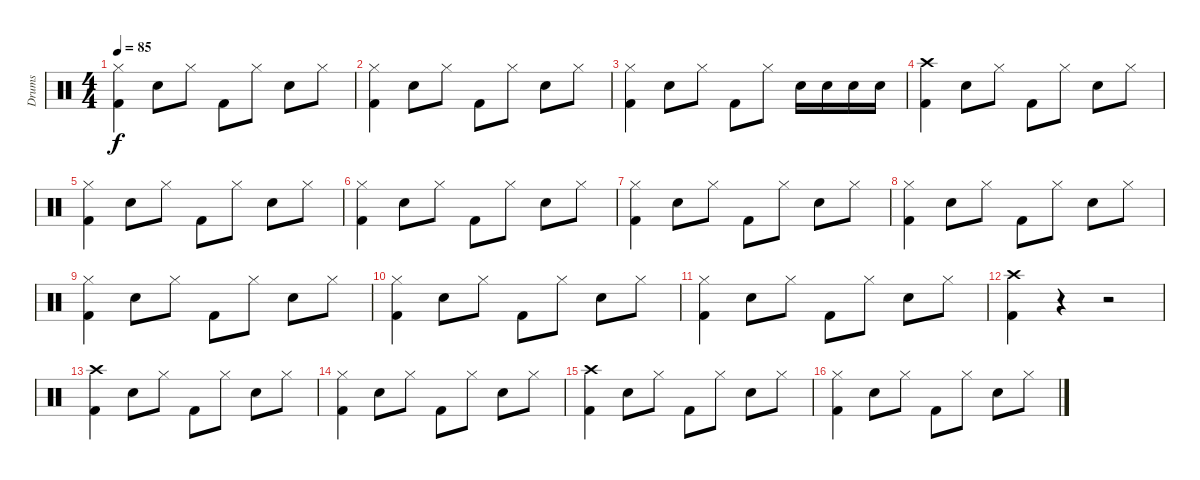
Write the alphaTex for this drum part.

\track ("Drums" "Drums") {instrument percussion}
\staff {score}
\articulation defaults
\ts (4 4)
\tempo 85
\clef neutral
\ks c
("Kick (hit) 2" "Hi-Hat (closed)").4{dy f} "Snare (hit) 2".8 "Hi-Hat (closed)".8 "Kick (hit) 2".8 "Hi-Hat (closed)".8 "Snare (hit) 2".8 "Hi-Hat (closed)".8 |
("Kick (hit) 2" "Hi-Hat (closed)").4 "Snare (hit) 2".8 "Hi-Hat (closed)".8 "Kick (hit) 2".8 "Hi-Hat (closed)".8 "Snare (hit) 2".8 "Hi-Hat (closed)".8 |
("Kick (hit) 2" "Hi-Hat (closed)").4 "Snare (hit) 2".8 "Hi-Hat (closed)".8 "Kick (hit) 2".8 "Hi-Hat (closed)".8 "Snare (hit) 2".16 "Snare (hit) 2".16 "Snare (hit) 2".16 "Snare (hit) 2".16 |
("Kick (hit) 2" "Crash high (hit)").4 "Snare (hit) 2".8 "Hi-Hat (closed)".8 "Kick (hit) 2".8 "Hi-Hat (closed)".8 "Snare (hit) 2".8 "Hi-Hat (closed)".8 |
("Kick (hit) 2" "Hi-Hat (closed)").4 "Snare (hit) 2".8 "Hi-Hat (closed)".8 "Kick (hit) 2".8 "Hi-Hat (closed)".8 "Snare (hit) 2".8 "Hi-Hat (closed)".8 |
("Kick (hit) 2" "Hi-Hat (closed)").4 "Snare (hit) 2".8 "Hi-Hat (closed)".8 "Kick (hit) 2".8 "Hi-Hat (closed)".8 "Snare (hit) 2".8 "Hi-Hat (closed)".8 |
("Kick (hit) 2" "Hi-Hat (closed)").4 "Snare (hit) 2".8 "Hi-Hat (closed)".8 "Kick (hit) 2".8 "Hi-Hat (closed)".8 "Snare (hit) 2".8 "Hi-Hat (closed)".8 |
("Kick (hit) 2" "Hi-Hat (closed)").4 "Snare (hit) 2".8 "Hi-Hat (closed)".8 "Kick (hit) 2".8 "Hi-Hat (closed)".8 "Snare (hit) 2".8 "Hi-Hat (closed)".8 |
("Kick (hit) 2" "Hi-Hat (closed)").4 "Snare (hit) 2".8 "Hi-Hat (closed)".8 "Kick (hit) 2".8 "Hi-Hat (closed)".8 "Snare (hit) 2".8 "Hi-Hat (closed)".8 |
("Kick (hit) 2" "Hi-Hat (closed)").4 "Snare (hit) 2".8 "Hi-Hat (closed)".8 "Kick (hit) 2".8 "Hi-Hat (closed)".8 "Snare (hit) 2".8 "Hi-Hat (closed)".8 |
("Kick (hit) 2" "Hi-Hat (closed)").4 "Snare (hit) 2".8 "Hi-Hat (closed)".8 "Kick (hit) 2".8 "Hi-Hat (closed)".8 "Snare (hit) 2".8 "Hi-Hat (closed)".8 |
("Kick (hit) 2" "Crash high (hit)").4 r.4 r.2 |
("Kick (hit) 2" "Crash high (hit)").4 "Snare (hit) 2".8 "Hi-Hat (closed)".8 "Kick (hit) 2".8 "Hi-Hat (closed)".8 "Snare (hit) 2".8 "Hi-Hat (closed)".8 |
("Kick (hit) 2" "Hi-Hat (closed)").4 "Snare (hit) 2".8 "Hi-Hat (closed)".8 "Kick (hit) 2".8 "Hi-Hat (closed)".8 "Snare (hit) 2".8 "Hi-Hat (closed)".8 |
("Kick (hit) 2" "Crash high (hit)").4 "Snare (hit) 2".8 "Hi-Hat (closed)".8 "Kick (hit) 2".8 "Hi-Hat (closed)".8 "Snare (hit) 2".8 "Hi-Hat (closed)".8 |
("Kick (hit) 2" "Hi-Hat (closed)").4 "Snare (hit) 2".8 "Hi-Hat (closed)".8 "Kick (hit) 2".8 "Hi-Hat (closed)".8 "Snare (hit) 2".8 "Hi-Hat (closed)".8
